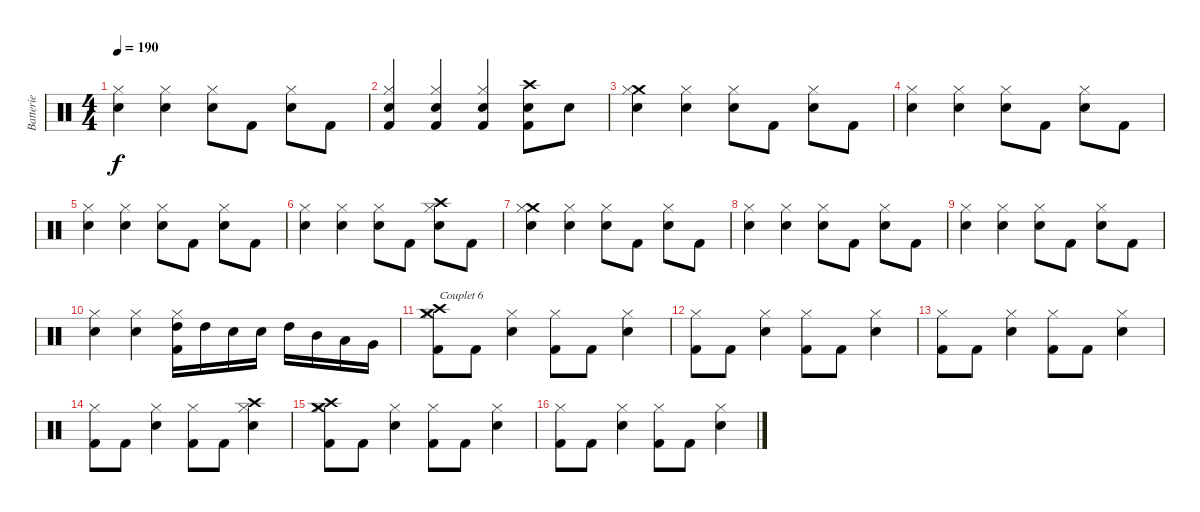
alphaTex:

\track ("Batterie" "Batterie") {instrument percussion}
\staff {score}
\articulation defaults
\ts (4 4)
\tempo 190
\clef neutral
\ks c
("Electric Snare (hit)" "Hi-Hat (closed)").4{dy f} ("Electric Snare (hit)" "Hi-Hat (closed)").4 ("Electric Snare (hit)" "Hi-Hat (closed)").8 "Kick (hit) 2".8 ("Electric Snare (hit)" "Hi-Hat (closed)").8 "Kick (hit) 2".8 |
("Electric Snare (hit)" "Hi-Hat (closed)" "Kick (hit) 2").4 ("Electric Snare (hit)" "Hi-Hat (closed)" "Kick (hit) 2").4 ("Electric Snare (hit)" "Hi-Hat (closed)" "Kick (hit) 2").4 ("Crash high (hit)" "Electric Snare (hit)" "Kick (hit) 2").8 "Electric Snare (hit)".8 |
("Crash medium (hit)" "Electric Snare (hit)" "Hi-Hat (closed)").4 ("Electric Snare (hit)" "Hi-Hat (closed)").4 ("Electric Snare (hit)" "Hi-Hat (closed)").8 "Kick (hit) 2".8 ("Electric Snare (hit)" "Hi-Hat (closed)").8 "Kick (hit) 2".8 |
("Electric Snare (hit)" "Hi-Hat (closed)").4 ("Electric Snare (hit)" "Hi-Hat (closed)").4 ("Electric Snare (hit)" "Hi-Hat (closed)").8 "Kick (hit) 2".8 ("Electric Snare (hit)" "Hi-Hat (closed)").8 "Kick (hit) 2".8 |
("Electric Snare (hit)" "Hi-Hat (closed)").4 ("Electric Snare (hit)" "Hi-Hat (closed)").4 ("Electric Snare (hit)" "Hi-Hat (closed)").8 "Kick (hit) 2".8 ("Electric Snare (hit)" "Hi-Hat (closed)").8 "Kick (hit) 2".8 |
("Electric Snare (hit)" "Hi-Hat (closed)").4 ("Electric Snare (hit)" "Hi-Hat (closed)").4 ("Electric Snare (hit)" "Hi-Hat (closed)").8 "Kick (hit) 2".8 ("Crash high (hit)" "Electric Snare (hit)" "Hi-Hat (closed)").8 "Kick (hit) 2".8 |
("Crash medium (hit)" "Electric Snare (hit)" "Hi-Hat (closed)").4 ("Electric Snare (hit)" "Hi-Hat (closed)").4 ("Electric Snare (hit)" "Hi-Hat (closed)").8 "Kick (hit) 2".8 ("Electric Snare (hit)" "Hi-Hat (closed)").8 "Kick (hit) 2".8 |
("Electric Snare (hit)" "Hi-Hat (closed)").4 ("Electric Snare (hit)" "Hi-Hat (closed)").4 ("Electric Snare (hit)" "Hi-Hat (closed)").8 "Kick (hit) 2".8 ("Electric Snare (hit)" "Hi-Hat (closed)").8 "Kick (hit) 2".8 |
("Electric Snare (hit)" "Hi-Hat (closed)").4 ("Electric Snare (hit)" "Hi-Hat (closed)").4 ("Electric Snare (hit)" "Hi-Hat (closed)").8 "Kick (hit) 2".8 ("Electric Snare (hit)" "Hi-Hat (closed)").8 "Kick (hit) 2".8 |
("Electric Snare (hit)" "Hi-Hat (closed)").4 ("Electric Snare (hit)" "Hi-Hat (closed)").4 ("High Tom (hit)" "Hi-Hat (closed)" "Kick (hit) 2").16 "High Tom (hit)".16 "Electric Snare (hit)".16 "Electric Snare (hit)".16 "High Tom (hit)".16 "Mid Tom (hit)".16 "Low Tom (hit)".16 "Very Low Tom (hit)".16 |
("Crash medium (hit)" "Crash high (hit)" "Hi-Hat (closed)" "Kick (hit) 2").8{txt "Couplet 6"} "Kick (hit) 2".8 ("Electric Snare (hit)" "Hi-Hat (closed)").4 ("Hi-Hat (closed)" "Kick (hit) 2").8 "Kick (hit) 2".8 ("Electric Snare (hit)" "Hi-Hat (closed)").4 |
("Hi-Hat (closed)" "Kick (hit) 2").8 "Kick (hit) 2".8 ("Electric Snare (hit)" "Hi-Hat (closed)").4 ("Hi-Hat (closed)" "Kick (hit) 2").8 "Kick (hit) 2".8 ("Electric Snare (hit)" "Hi-Hat (closed)").4 |
("Hi-Hat (closed)" "Kick (hit) 2").8 "Kick (hit) 2".8 ("Electric Snare (hit)" "Hi-Hat (closed)").4 ("Hi-Hat (closed)" "Kick (hit) 2").8 "Kick (hit) 2".8 ("Electric Snare (hit)" "Hi-Hat (closed)").4 |
("Hi-Hat (closed)" "Kick (hit) 2").8 "Kick (hit) 2".8 ("Electric Snare (hit)" "Hi-Hat (closed)").4 ("Hi-Hat (closed)" "Kick (hit) 2").8 "Kick (hit) 2".8 ("Crash high (hit)" "Electric Snare (hit)" "Hi-Hat (closed)").4 |
("Crash medium (hit)" "Crash high (hit)" "Hi-Hat (closed)" "Kick (hit) 2").8 "Kick (hit) 2".8 ("Electric Snare (hit)" "Hi-Hat (closed)").4 ("Hi-Hat (closed)" "Kick (hit) 2").8 "Kick (hit) 2".8 ("Electric Snare (hit)" "Hi-Hat (closed)").4 |
("Hi-Hat (closed)" "Kick (hit) 2").8 "Kick (hit) 2".8 ("Electric Snare (hit)" "Hi-Hat (closed)").4 ("Hi-Hat (closed)" "Kick (hit) 2").8 "Kick (hit) 2".8 ("Electric Snare (hit)" "Hi-Hat (closed)").4
